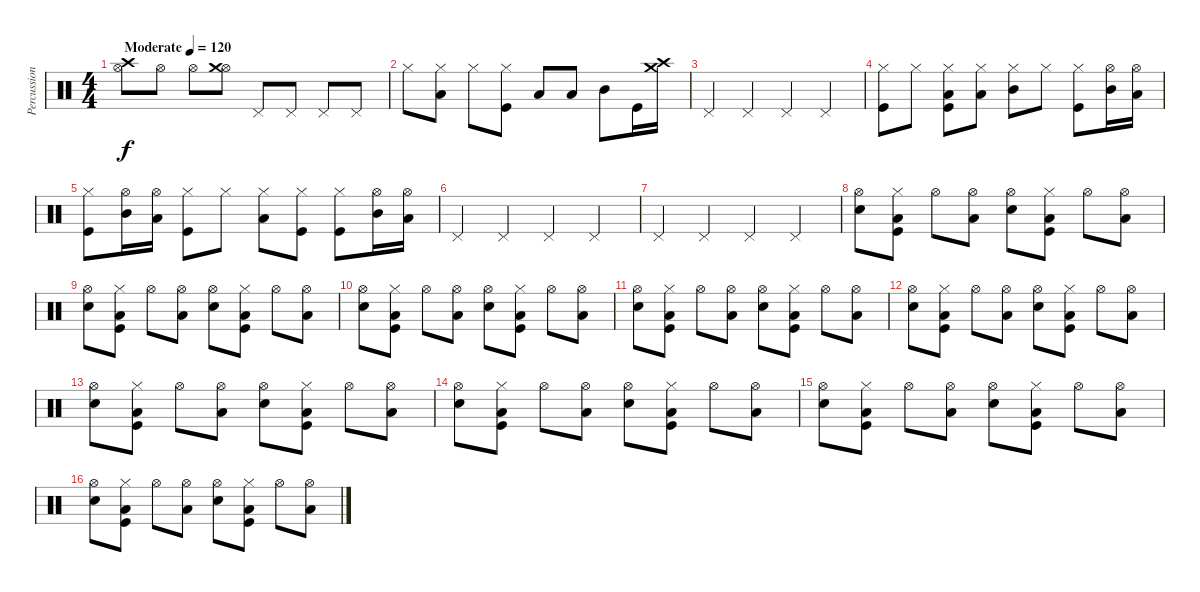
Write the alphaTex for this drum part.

\track ("Percussion" "Percussion") {instrument percussion}
\staff {score}
\articulation defaults
\ts (4 4)
\tempo (120 "Moderate")
\clef neutral
\ks c
("Hi-Hat (open)" "Crash high (hit)").8{dy f} "Hi-Hat (open)".8 "Hi-Hat (open)".8 ("Hi-Hat (open)" "Crash medium (hit)").8 "Pedal Hi-Hat (hit)".8 "Pedal Hi-Hat (hit)".8 "Pedal Hi-Hat (hit)".8 "Pedal Hi-Hat (hit)".8 |
"Hi-Hat (closed)".8 ("Hi-Hat (closed)" "Low Tom (hit)").8 "Hi-Hat (closed)".8 ("Hi-Hat (closed)" "Kick (hit)").8 "Low Floor Tom (hit)".8 "Low Tom (hit)".8 "Mid Tom (hit)".8 "Kick (hit)".16 ("Crash high (hit)" "Crash medium (hit)").16 |
"Pedal Hi-Hat (hit)".4 "Pedal Hi-Hat (hit)".4 "Pedal Hi-Hat (hit)".4 "Pedal Hi-Hat (hit)".4 |
("Hi-Hat (closed)" "Kick (hit)").8 "Hi-Hat (closed)".8 ("Hi-Hat (closed)" "Low Tom (hit)" "Kick (hit)").8 ("Hi-Hat (closed)" "Low Tom (hit)").8 ("Hi-Hat (closed)" "Mid Tom (hit)").8 "Hi-Hat (closed)".8 ("Hi-Hat (closed)" "Kick (hit)").8 ("Hi-Hat (open)" "Mid Tom (hit)").16 ("Hi-Hat (open)" "Low Tom (hit)").16 |
("Hi-Hat (closed)" "Kick (hit)").8 ("Hi-Hat (open)" "Mid Tom (hit)").16 ("Hi-Hat (open)" "Low Tom (hit)").16 ("Hi-Hat (closed)" "Kick (hit)").8 "Hi-Hat (closed)".8 ("Hi-Hat (closed)" "Low Tom (hit)").8 ("Hi-Hat (closed)" "Kick (hit)").8 ("Hi-Hat (closed)" "Kick (hit)").8 ("Hi-Hat (open)" "Mid Tom (hit)").16 ("Hi-Hat (open)" "Low Tom (hit)").16 |
"Pedal Hi-Hat (hit)".4 "Pedal Hi-Hat (hit)".4 "Pedal Hi-Hat (hit)".4 "Pedal Hi-Hat (hit)".4 |
"Pedal Hi-Hat (hit)".4 "Pedal Hi-Hat (hit)".4 "Pedal Hi-Hat (hit)".4 "Pedal Hi-Hat (hit)".4 |
("Hi-Hat (open)" "Snare (hit) 2").8 ("Hi-Hat (closed)" "Low Floor Tom (hit)" "Kick (hit)").8 "Hi-Hat (open)".8 ("Hi-Hat (open)" "Low Floor Tom (hit)").8 ("Hi-Hat (open)" "Snare (hit) 2").8 ("Hi-Hat (closed)" "Low Floor Tom (hit)" "Kick (hit)").8 "Hi-Hat (open)".8 ("Hi-Hat (open)" "Low Floor Tom (hit)").8 |
("Hi-Hat (open)" "Snare (hit) 2").8 ("Hi-Hat (closed)" "Low Floor Tom (hit)" "Kick (hit)").8 "Hi-Hat (open)".8 ("Hi-Hat (open)" "Low Floor Tom (hit)").8 ("Hi-Hat (open)" "Snare (hit) 2").8 ("Hi-Hat (closed)" "Low Floor Tom (hit)" "Kick (hit)").8 "Hi-Hat (open)".8 ("Hi-Hat (open)" "Low Floor Tom (hit)").8 |
("Hi-Hat (open)" "Snare (hit) 2").8 ("Hi-Hat (closed)" "Low Floor Tom (hit)" "Kick (hit)").8 "Hi-Hat (open)".8 ("Hi-Hat (open)" "Low Floor Tom (hit)").8 ("Hi-Hat (open)" "Snare (hit) 2").8 ("Hi-Hat (closed)" "Low Floor Tom (hit)" "Kick (hit)").8 "Hi-Hat (open)".8 ("Hi-Hat (open)" "Low Floor Tom (hit)").8 |
("Hi-Hat (open)" "Snare (hit) 2").8 ("Hi-Hat (closed)" "Low Floor Tom (hit)" "Kick (hit)").8 "Hi-Hat (open)".8 ("Hi-Hat (open)" "Low Floor Tom (hit)").8 ("Hi-Hat (open)" "Snare (hit) 2").8 ("Hi-Hat (closed)" "Low Floor Tom (hit)" "Kick (hit)").8 "Hi-Hat (open)".8 ("Hi-Hat (open)" "Low Floor Tom (hit)").8 |
("Hi-Hat (open)" "Snare (hit) 2").8 ("Hi-Hat (closed)" "Low Floor Tom (hit)" "Kick (hit)").8 "Hi-Hat (open)".8 ("Hi-Hat (open)" "Low Floor Tom (hit)").8 ("Hi-Hat (open)" "Snare (hit) 2").8 ("Hi-Hat (closed)" "Low Floor Tom (hit)" "Kick (hit)").8 "Hi-Hat (open)".8 ("Hi-Hat (open)" "Low Floor Tom (hit)").8 |
("Hi-Hat (open)" "Snare (hit) 2").8 ("Hi-Hat (closed)" "Low Floor Tom (hit)" "Kick (hit)").8 "Hi-Hat (open)".8 ("Hi-Hat (open)" "Low Floor Tom (hit)").8 ("Hi-Hat (open)" "Snare (hit) 2").8 ("Hi-Hat (closed)" "Low Floor Tom (hit)" "Kick (hit)").8 "Hi-Hat (open)".8 ("Hi-Hat (open)" "Low Floor Tom (hit)").8 |
("Hi-Hat (open)" "Snare (hit) 2").8 ("Hi-Hat (closed)" "Low Floor Tom (hit)" "Kick (hit)").8 "Hi-Hat (open)".8 ("Hi-Hat (open)" "Low Floor Tom (hit)").8 ("Hi-Hat (open)" "Snare (hit) 2").8 ("Hi-Hat (closed)" "Low Floor Tom (hit)" "Kick (hit)").8 "Hi-Hat (open)".8 ("Hi-Hat (open)" "Low Floor Tom (hit)").8 |
("Hi-Hat (open)" "Snare (hit) 2").8 ("Hi-Hat (closed)" "Low Floor Tom (hit)" "Kick (hit)").8 "Hi-Hat (open)".8 ("Hi-Hat (open)" "Low Floor Tom (hit)").8 ("Hi-Hat (open)" "Snare (hit) 2").8 ("Hi-Hat (closed)" "Low Floor Tom (hit)" "Kick (hit)").8 "Hi-Hat (open)".8 ("Hi-Hat (open)" "Low Floor Tom (hit)").8 |
("Hi-Hat (open)" "Snare (hit) 2").8 ("Hi-Hat (closed)" "Low Floor Tom (hit)" "Kick (hit)").8 "Hi-Hat (open)".8 ("Hi-Hat (open)" "Low Floor Tom (hit)").8 ("Hi-Hat (open)" "Snare (hit) 2").8 ("Hi-Hat (closed)" "Low Floor Tom (hit)" "Kick (hit)").8 "Hi-Hat (open)".8 ("Hi-Hat (open)" "Low Floor Tom (hit)").8
